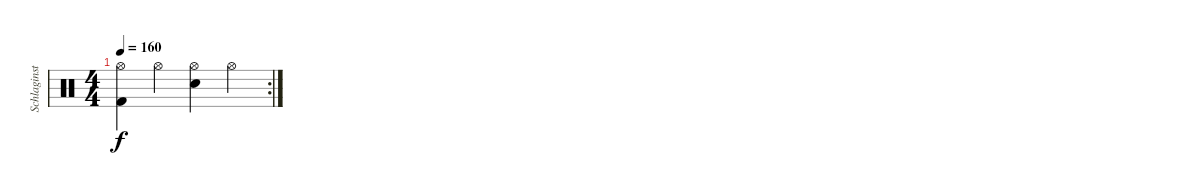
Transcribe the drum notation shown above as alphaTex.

\track ("Schlaginstrumente - Auswahl" "Schlaginst") {instrument percussion}
\staff {score}
\articulation defaults
\rc 2
\ts (4 4)
\tempo 160
\clef neutral
\ks c
("Hi-Hat (open)" "Kick (hit) 2").4{dy f} "Hi-Hat (open)".4 ("Hi-Hat (open)" "Electric Snare (hit)").4 "Hi-Hat (open)".4
